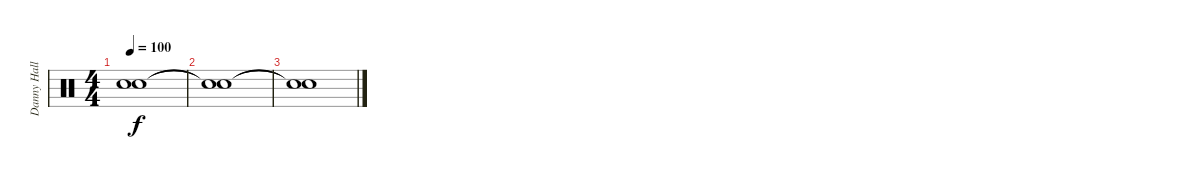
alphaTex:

\track ("Danny Hall" "Danny Hall") {instrument percussion}
\staff {score}
\articulation defaults
\ts (4 4)
\tempo 100
\clef neutral
\ks c
("Snare (hit)"{t} "Snare (hit)"{t}).1{dy f} |
("Snare (hit)"{t} "Snare (hit)"{t}).1 |
("Snare (hit)"{t} "Snare (hit)"{t}).1
